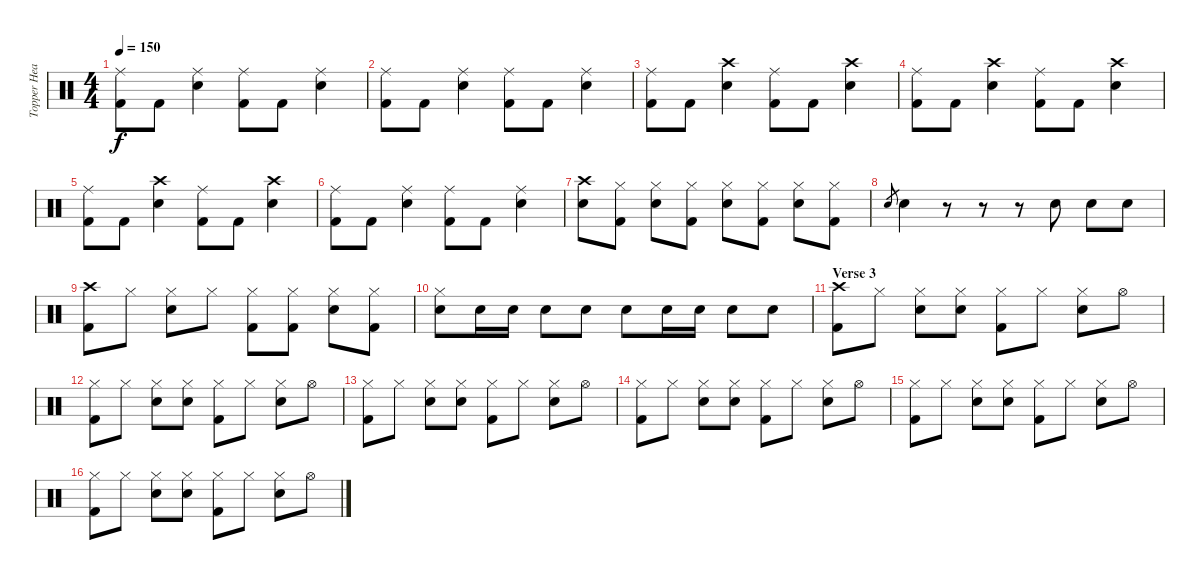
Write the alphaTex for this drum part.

\track ("Topper Headon - Drums" "Topper Hea") {instrument percussion}
\staff {score}
\articulation defaults
\ts (4 4)
\tempo 150
\clef neutral
\ks c
("Ride (middle)" "Kick (hit) 2").8{dy f} "Kick (hit) 2".8 ("Ride (middle)" "Electric Snare (hit)").4 ("Ride (middle)" "Kick (hit) 2").8 "Kick (hit) 2".8 ("Ride (middle)" "Electric Snare (hit)").4 |
("Ride (middle)" "Kick (hit) 2").8 "Kick (hit) 2".8 ("Ride (middle)" "Electric Snare (hit)").4 ("Ride (middle)" "Kick (hit) 2").8 "Kick (hit) 2".8 ("Ride (middle)" "Electric Snare (hit)").4 |
("Ride (middle)" "Kick (hit) 2").8 "Kick (hit) 2".8 ("Crash high (hit)" "Electric Snare (hit)").4 ("Ride (middle)" "Kick (hit) 2").8 "Kick (hit) 2".8 ("Crash high (hit)" "Electric Snare (hit)").4 |
("Ride (middle)" "Kick (hit) 2").8 "Kick (hit) 2".8 ("Crash high (hit)" "Electric Snare (hit)").4 ("Ride (middle)" "Kick (hit) 2").8 "Kick (hit) 2".8 ("Crash high (hit)" "Electric Snare (hit)").4 |
("Ride (middle)" "Kick (hit) 2").8 "Kick (hit) 2".8 ("Crash high (hit)" "Electric Snare (hit)").4 ("Ride (middle)" "Kick (hit) 2").8 "Kick (hit) 2".8 ("Crash high (hit)" "Electric Snare (hit)").4 |
("Ride (middle)" "Kick (hit) 2").8 "Kick (hit) 2".8 ("Ride (middle)" "Electric Snare (hit)").4 ("Ride (middle)" "Kick (hit) 2").8 "Kick (hit) 2".8 ("Ride (middle)" "Electric Snare (hit)").4 |
("Crash high (hit)" "Electric Snare (hit)").8 ("Hi-Hat (closed)" "Kick (hit) 2").8 ("Hi-Hat (closed)" "Electric Snare (hit)").8 ("Hi-Hat (closed)" "Kick (hit) 2").8 ("Hi-Hat (closed)" "Electric Snare (hit)").8 ("Hi-Hat (closed)" "Kick (hit) 2").8 ("Hi-Hat (closed)" "Electric Snare (hit)").8 ("Hi-Hat (closed)" "Kick (hit) 2").8 |
"Electric Snare (hit)".8{gr} "Electric Snare (hit)".4 r.8 r.8 r.8 "Electric Snare (hit)".8 "Electric Snare (hit)".8 "Electric Snare (hit)".8 |
("Crash high (hit)" "Kick (hit) 2").8 "Hi-Hat (closed)".8 ("Hi-Hat (closed)" "Electric Snare (hit)").8 "Hi-Hat (closed)".8 ("Hi-Hat (closed)" "Kick (hit) 2").8 ("Hi-Hat (closed)" "Kick (hit) 2").8 ("Hi-Hat (closed)" "Electric Snare (hit)").8 ("Hi-Hat (closed)" "Kick (hit) 2").8 |
("Hi-Hat (closed)" "Electric Snare (hit)").8 "Electric Snare (hit)".16 "Electric Snare (hit)".16 "Electric Snare (hit)".8 "Electric Snare (hit)".8 "Electric Snare (hit)".8 "Electric Snare (hit)".16 "Electric Snare (hit)".16 "Electric Snare (hit)".8 "Electric Snare (hit)".8 |
\section ("" "Verse 3")
("Crash high (hit)" "Kick (hit) 2").8 "Hi-Hat (closed)".8 ("Hi-Hat (closed)" "Electric Snare (hit)").8 ("Hi-Hat (closed)" "Electric Snare (hit)").8 ("Hi-Hat (closed)" "Kick (hit) 2").8 "Hi-Hat (closed)".8 ("Hi-Hat (closed)" "Electric Snare (hit)").8 "Hi-Hat (open)".8 |
("Hi-Hat (closed)" "Kick (hit) 2").8 "Hi-Hat (closed)".8 ("Hi-Hat (closed)" "Electric Snare (hit)").8 ("Hi-Hat (closed)" "Electric Snare (hit)").8 ("Hi-Hat (closed)" "Kick (hit) 2").8 "Hi-Hat (closed)".8 ("Hi-Hat (closed)" "Electric Snare (hit)").8 "Hi-Hat (open)".8 |
("Hi-Hat (closed)" "Kick (hit) 2").8 "Hi-Hat (closed)".8 ("Hi-Hat (closed)" "Electric Snare (hit)").8 ("Hi-Hat (closed)" "Electric Snare (hit)").8 ("Hi-Hat (closed)" "Kick (hit) 2").8 "Hi-Hat (closed)".8 ("Hi-Hat (closed)" "Electric Snare (hit)").8 "Hi-Hat (open)".8 |
("Hi-Hat (closed)" "Kick (hit) 2").8 "Hi-Hat (closed)".8 ("Hi-Hat (closed)" "Electric Snare (hit)").8 ("Hi-Hat (closed)" "Electric Snare (hit)").8 ("Hi-Hat (closed)" "Kick (hit) 2").8 "Hi-Hat (closed)".8 ("Hi-Hat (closed)" "Electric Snare (hit)").8 "Hi-Hat (open)".8 |
("Hi-Hat (closed)" "Kick (hit) 2").8 "Hi-Hat (closed)".8 ("Hi-Hat (closed)" "Electric Snare (hit)").8 ("Hi-Hat (closed)" "Electric Snare (hit)").8 ("Hi-Hat (closed)" "Kick (hit) 2").8 "Hi-Hat (closed)".8 ("Hi-Hat (closed)" "Electric Snare (hit)").8 "Hi-Hat (open)".8 |
("Hi-Hat (closed)" "Kick (hit) 2").8 "Hi-Hat (closed)".8 ("Hi-Hat (closed)" "Electric Snare (hit)").8 ("Hi-Hat (closed)" "Electric Snare (hit)").8 ("Hi-Hat (closed)" "Kick (hit) 2").8 "Hi-Hat (closed)".8 ("Hi-Hat (closed)" "Electric Snare (hit)").8 "Hi-Hat (open)".8
